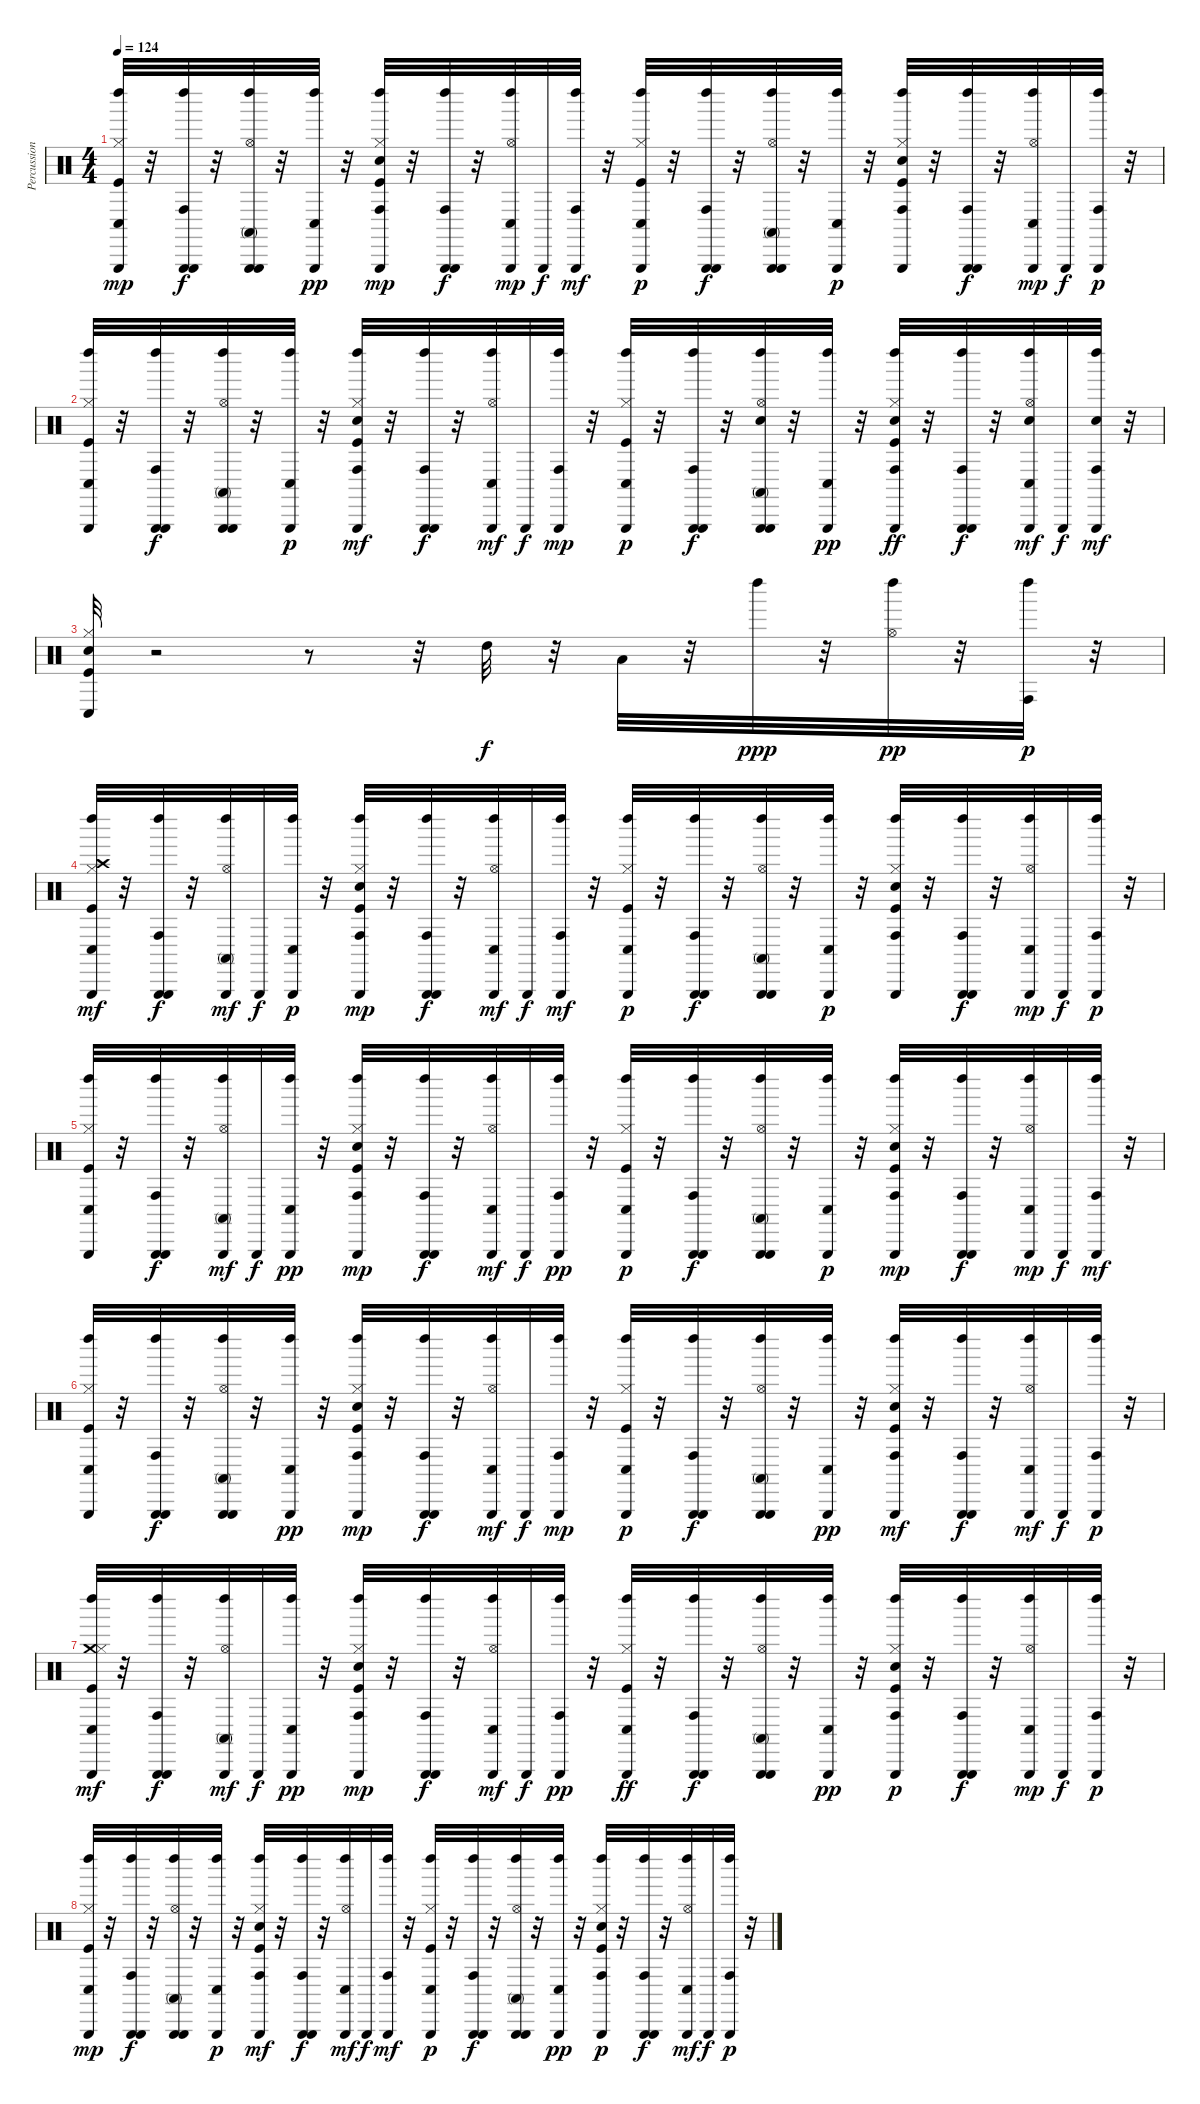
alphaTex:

\track ("Percussion" "Percussion") {instrument percussion}
\staff {score}
\articulation defaults
\ts (4 4)
\tempo 124
\clef neutral
\ks c
("Triangle (hit)" "Kick (hit)" "Hi-Hat (closed)" "Conga low (hit)" "Left Maraca (hit)").32{dy mp} r.32 ("Triangle (hit)" "Left Maraca (hit)" "Conga high (hit)" "Triangle (hit)").32{dy f} r.32 ("Triangle (hit)" "Hi-Hat (open)" "Conga high (mute)" "Left Maraca (hit)" "Triangle (hit)").32 r.32 ("Triangle (hit)" "Conga low (hit)" "Left Maraca (hit)").32{dy pp} r.32 ("Triangle (hit)" "Kick (hit)" "Snare (hit) 2" "Hi-Hat (closed)" "Conga high (hit)" "Left Maraca (hit)").32{dy mp} r.32 ("Triangle (hit)" "Conga high (hit)" "Left Maraca (hit)" "Triangle (hit)").32{dy f} r.32 ("Conga low (hit)" "Left Maraca (hit)" "Triangle (hit)" "Hi-Hat (open)").32{dy mp} "Triangle (hit)".32{dy f} ("Triangle (hit)" "Left Maraca (hit)" "Conga high (hit)").32{dy mf} r.32 ("Left Maraca (hit)" "Triangle (hit)" "Kick (hit)" "Hi-Hat (closed)" "Conga low (hit)").32{dy p} r.32 ("Triangle (hit)" "Conga high (hit)" "Left Maraca (hit)" "Triangle (hit)").32{dy f} r.32 ("Triangle (hit)" "Left Maraca (hit)" "Conga high (mute)" "Hi-Hat (open)" "Triangle (hit)").32 r.32 ("Triangle (hit)" "Left Maraca (hit)" "Conga low (hit)").32{dy p} r.32 ("Triangle (hit)" "Kick (hit)" "Snare (hit) 2" "Hi-Hat (closed)" "Conga high (hit)" "Left Maraca (hit)").32 r.32 ("Triangle (hit)" "Conga high (hit)" "Left Maraca (hit)" "Triangle (hit)").32{dy f} r.32 ("Conga low (hit)" "Left Maraca (hit)" "Triangle (hit)" "Hi-Hat (open)").32{dy mp} "Triangle (hit)".32{dy f} ("Triangle (hit)" "Conga high (hit)" "Left Maraca (hit)").32{dy p} r.32 |
("Triangle (hit)" "Left Maraca (hit)" "Kick (hit)" "Hi-Hat (closed)" "Conga low (hit)").32 r.32 ("Left Maraca (hit)" "Triangle (hit)" "Conga high (hit)" "Triangle (hit)").32{dy f} r.32 ("Triangle (hit)" "Hi-Hat (open)" "Conga high (mute)" "Left Maraca (hit)" "Triangle (hit)").32 r.32 ("Triangle (hit)" "Left Maraca (hit)" "Conga low (hit)").32{dy p} r.32 ("Triangle (hit)" "Kick (hit)" "Snare (hit) 2" "Hi-Hat (closed)" "Left Maraca (hit)" "Conga high (hit)").32{dy mf} r.32 ("Conga high (hit)" "Triangle (hit)" "Left Maraca (hit)" "Triangle (hit)").32{dy f} r.32 ("Triangle (hit)" "Hi-Hat (open)" "Left Maraca (hit)" "Conga low (hit)").32{dy mf} "Triangle (hit)".32{dy f} ("Conga high (hit)" "Left Maraca (hit)" "Triangle (hit)").32{dy mp} r.32 ("Triangle (hit)" "Kick (hit)" "Hi-Hat (closed)" "Conga low (hit)" "Left Maraca (hit)").32{dy p} r.32 ("Conga high (hit)" "Triangle (hit)" "Left Maraca (hit)" "Triangle (hit)").32{dy f} r.32 ("Triangle (hit)" "Hi-Hat (open)" "Left Maraca (hit)" "Snare (hit) 2" "Conga high (mute)" "Triangle (hit)").32 r.32 ("Triangle (hit)" "Conga low (hit)" "Left Maraca (hit)").32{dy pp} r.32 ("Triangle (hit)" "Hi-Hat (closed)" "Conga high (hit)" "Left Maraca (hit)" "Kick (hit)" "Snare (hit) 2").32{dy ff} r.32 ("Triangle (hit)" "Conga high (hit)" "Left Maraca (hit)" "Triangle (hit)").32{dy f} r.32 ("Hi-Hat (open)" "Triangle (hit)" "Snare (hit) 2" "Left Maraca (hit)" "Conga low (hit)").32{dy mf} "Triangle (hit)".32{dy f} ("Triangle (hit)" "Snare (hit) 2" "Left Maraca (hit)" "Conga high (hit)").32{dy mf} r.32 |
("Kick (hit)" "Snare (hit) 2" "Conga low (hit)" "Hi-Hat (closed)").32 r.2 r.8 r.32 "High Tom (hit)".32{dy f} r.32 "Low Tom (hit)".32 r.32 "Left Maraca (hit)".32{dy ppp} r.32 ("Hi-Hat (open)" "Left Maraca (hit)").32{dy pp} r.32 ("Conga high (hit)" "Left Maraca (hit)").32{dy p} r.32 |
("Triangle (hit)" "Left Maraca (hit)" "Kick (hit)" "Crash high (hit)" "Conga low (hit)" "Hi-Hat (closed)").32{dy mf} r.32 ("Left Maraca (hit)" "Triangle (hit)" "Conga high (hit)" "Triangle (hit)").32{dy f} r.32 ("Triangle (hit)" "Hi-Hat (open)" "Conga high (mute)" "Left Maraca (hit)").32{dy mf} "Triangle (hit)".32{dy f} ("Left Maraca (hit)" "Triangle (hit)" "Conga low (hit)").32{dy p} r.32 ("Triangle (hit)" "Kick (hit)" "Snare (hit) 2" "Hi-Hat (closed)" "Conga high (hit)" "Left Maraca (hit)").32{dy mp} r.32 ("Triangle (hit)" "Conga high (hit)" "Left Maraca (hit)" "Triangle (hit)").32{dy f} r.32 ("Left Maraca (hit)" "Triangle (hit)" "Hi-Hat (open)" "Conga low (hit)").32{dy mf} "Triangle (hit)".32{dy f} ("Triangle (hit)" "Left Maraca (hit)" "Conga high (hit)").32{dy mf} r.32 ("Triangle (hit)" "Hi-Hat (closed)" "Kick (hit)" "Conga low (hit)" "Left Maraca (hit)").32{dy p} r.32 ("Triangle (hit)" "Left Maraca (hit)" "Conga high (hit)" "Triangle (hit)").32{dy f} r.32 ("Left Maraca (hit)" "Triangle (hit)" "Hi-Hat (open)" "Conga high (mute)" "Triangle (hit)").32 r.32 ("Triangle (hit)" "Left Maraca (hit)" "Conga low (hit)").32{dy p} r.32 ("Triangle (hit)" "Conga high (hit)" "Kick (hit)" "Snare (hit) 2" "Hi-Hat (closed)" "Left Maraca (hit)").32 r.32 ("Triangle (hit)" "Conga high (hit)" "Left Maraca (hit)" "Triangle (hit)").32{dy f} r.32 ("Left Maraca (hit)" "Triangle (hit)" "Conga low (hit)" "Hi-Hat (open)").32{dy mp} "Triangle (hit)".32{dy f} ("Triangle (hit)" "Conga high (hit)" "Left Maraca (hit)").32{dy p} r.32 |
("Hi-Hat (closed)" "Left Maraca (hit)" "Triangle (hit)" "Kick (hit)" "Conga low (hit)").32 r.32 ("Triangle (hit)" "Conga high (hit)" "Left Maraca (hit)" "Triangle (hit)").32{dy f} r.32 ("Hi-Hat (open)" "Triangle (hit)" "Conga high (mute)" "Left Maraca (hit)").32{dy mf} "Triangle (hit)".32{dy f} ("Triangle (hit)" "Conga low (hit)" "Left Maraca (hit)").32{dy pp} r.32 ("Triangle (hit)" "Kick (hit)" "Snare (hit) 2" "Hi-Hat (closed)" "Conga high (hit)" "Left Maraca (hit)").32{dy mp} r.32 ("Triangle (hit)" "Conga high (hit)" "Left Maraca (hit)" "Triangle (hit)").32{dy f} r.32 ("Triangle (hit)" "Hi-Hat (open)" "Conga low (hit)" "Left Maraca (hit)").32{dy mf} "Triangle (hit)".32{dy f} ("Triangle (hit)" "Conga high (hit)" "Left Maraca (hit)").32{dy pp} r.32 ("Triangle (hit)" "Hi-Hat (closed)" "Kick (hit)" "Left Maraca (hit)" "Conga low (hit)").32{dy p} r.32 ("Triangle (hit)" "Conga high (hit)" "Left Maraca (hit)" "Triangle (hit)").32{dy f} r.32 ("Triangle (hit)" "Hi-Hat (open)" "Conga high (mute)" "Left Maraca (hit)" "Triangle (hit)").32 r.32 ("Triangle (hit)" "Left Maraca (hit)" "Conga low (hit)").32{dy p} r.32 ("Triangle (hit)" "Hi-Hat (closed)" "Kick (hit)" "Snare (hit) 2" "Left Maraca (hit)" "Conga high (hit)").32{dy mp} r.32 ("Triangle (hit)" "Conga high (hit)" "Left Maraca (hit)" "Triangle (hit)").32{dy f} r.32 ("Triangle (hit)" "Conga low (hit)" "Hi-Hat (open)" "Left Maraca (hit)").32{dy mp} "Triangle (hit)".32{dy f} ("Triangle (hit)" "Left Maraca (hit)" "Conga high (hit)").32{dy mf} r.32 |
("Triangle (hit)" "Left Maraca (hit)" "Kick (hit)" "Conga low (hit)" "Hi-Hat (closed)").32 r.32 ("Triangle (hit)" "Conga high (hit)" "Left Maraca (hit)" "Triangle (hit)").32{dy f} r.32 ("Triangle (hit)" "Hi-Hat (open)" "Conga high (mute)" "Left Maraca (hit)" "Triangle (hit)").32 r.32 ("Triangle (hit)" "Conga low (hit)" "Left Maraca (hit)").32{dy pp} r.32 ("Triangle (hit)" "Kick (hit)" "Snare (hit) 2" "Hi-Hat (closed)" "Conga high (hit)" "Left Maraca (hit)").32{dy mp} r.32 ("Triangle (hit)" "Conga high (hit)" "Left Maraca (hit)" "Triangle (hit)").32{dy f} r.32 ("Triangle (hit)" "Hi-Hat (open)" "Conga low (hit)" "Left Maraca (hit)").32{dy mf} "Triangle (hit)".32{dy f} ("Conga high (hit)" "Left Maraca (hit)" "Triangle (hit)").32{dy mp} r.32 ("Triangle (hit)" "Conga low (hit)" "Kick (hit)" "Hi-Hat (closed)" "Left Maraca (hit)").32{dy p} r.32 ("Triangle (hit)" "Left Maraca (hit)" "Conga high (hit)" "Triangle (hit)").32{dy f} r.32 ("Conga high (mute)" "Triangle (hit)" "Hi-Hat (open)" "Left Maraca (hit)" "Triangle (hit)").32 r.32 ("Triangle (hit)" "Conga low (hit)" "Left Maraca (hit)").32{dy pp} r.32 ("Triangle (hit)" "Left Maraca (hit)" "Kick (hit)" "Snare (hit) 2" "Hi-Hat (closed)" "Conga high (hit)").32{dy mf} r.32 ("Triangle (hit)" "Left Maraca (hit)" "Conga high (hit)" "Triangle (hit)").32{dy f} r.32 ("Triangle (hit)" "Hi-Hat (open)" "Left Maraca (hit)" "Conga low (hit)").32{dy mf} "Triangle (hit)".32{dy f} ("Conga high (hit)" "Triangle (hit)" "Left Maraca (hit)").32{dy p} r.32 |
("Triangle (hit)" "Conga low (hit)" "Left Maraca (hit)" "Kick (hit)" "Crash medium (hit)" "Hi-Hat (closed)").32{dy mf} r.32 ("Conga high (hit)" "Triangle (hit)" "Left Maraca (hit)" "Triangle (hit)").32{dy f} r.32 ("Triangle (hit)" "Conga high (mute)" "Hi-Hat (open)" "Left Maraca (hit)").32{dy mf} "Triangle (hit)".32{dy f} ("Triangle (hit)" "Conga low (hit)" "Left Maraca (hit)").32{dy pp} r.32 ("Conga high (hit)" "Triangle (hit)" "Kick (hit)" "Snare (hit) 2" "Hi-Hat (closed)" "Left Maraca (hit)").32{dy mp} r.32 ("Triangle (hit)" "Conga high (hit)" "Left Maraca (hit)" "Triangle (hit)").32{dy f} r.32 ("Triangle (hit)" "Hi-Hat (open)" "Left Maraca (hit)" "Conga low (hit)").32{dy mf} "Triangle (hit)".32{dy f} ("Triangle (hit)" "Conga high (hit)" "Left Maraca (hit)").32{dy pp} r.32 ("Triangle (hit)" "Hi-Hat (closed)" "Conga low (hit)" "Left Maraca (hit)" "Kick (hit)").32{dy ff} r.32 ("Triangle (hit)" "Left Maraca (hit)" "Conga high (hit)" "Triangle (hit)").32{dy f} r.32 ("Triangle (hit)" "Conga high (mute)" "Hi-Hat (open)" "Left Maraca (hit)" "Triangle (hit)").32 r.32 ("Triangle (hit)" "Conga low (hit)" "Left Maraca (hit)").32{dy pp} r.32 ("Triangle (hit)" "Hi-Hat (closed)" "Kick (hit)" "Snare (hit) 2" "Conga high (hit)" "Left Maraca (hit)").32{dy p} r.32 ("Triangle (hit)" "Conga high (hit)" "Left Maraca (hit)" "Triangle (hit)").32{dy f} r.32 ("Triangle (hit)" "Conga low (hit)" "Hi-Hat (open)" "Left Maraca (hit)").32{dy mp} "Triangle (hit)".32{dy f} ("Triangle (hit)" "Conga high (hit)" "Left Maraca (hit)").32{dy p} r.32 |
("Triangle (hit)" "Kick (hit)" "Hi-Hat (closed)" "Conga low (hit)" "Left Maraca (hit)").32{dy mp} r.32 ("Triangle (hit)" "Conga high (hit)" "Left Maraca (hit)" "Triangle (hit)").32{dy f} r.32 ("Triangle (hit)" "Hi-Hat (open)" "Conga high (mute)" "Left Maraca (hit)" "Triangle (hit)").32 r.32 ("Left Maraca (hit)" "Triangle (hit)" "Conga low (hit)").32{dy p} r.32 ("Triangle (hit)" "Kick (hit)" "Snare (hit) 2" "Hi-Hat (closed)" "Left Maraca (hit)" "Conga high (hit)").32{dy mf} r.32 ("Triangle (hit)" "Conga high (hit)" "Left Maraca (hit)" "Triangle (hit)").32{dy f} r.32 ("Triangle (hit)" "Conga low (hit)" "Hi-Hat (open)" "Left Maraca (hit)").32{dy mf} "Triangle (hit)".32{dy f} ("Left Maraca (hit)" "Triangle (hit)" "Conga high (hit)").32{dy mf} r.32 ("Triangle (hit)" "Kick (hit)" "Conga low (hit)" "Hi-Hat (closed)" "Left Maraca (hit)").32{dy p} r.32 ("Triangle (hit)" "Left Maraca (hit)" "Conga high (hit)" "Triangle (hit)").32{dy f} r.32 ("Triangle (hit)" "Left Maraca (hit)" "Hi-Hat (open)" "Conga high (mute)" "Triangle (hit)").32 r.32 ("Triangle (hit)" "Conga low (hit)" "Left Maraca (hit)").32{dy pp} r.32 ("Triangle (hit)" "Conga high (hit)" "Kick (hit)" "Snare (hit) 2" "Hi-Hat (closed)" "Left Maraca (hit)").32{dy p} r.32 ("Triangle (hit)" "Conga high (hit)" "Left Maraca (hit)" "Triangle (hit)").32{dy f} r.32 ("Triangle (hit)" "Left Maraca (hit)" "Hi-Hat (open)" "Conga low (hit)").32{dy mf} "Triangle (hit)".32{dy f} ("Triangle (hit)" "Conga high (hit)" "Left Maraca (hit)").32{dy p} r.32
